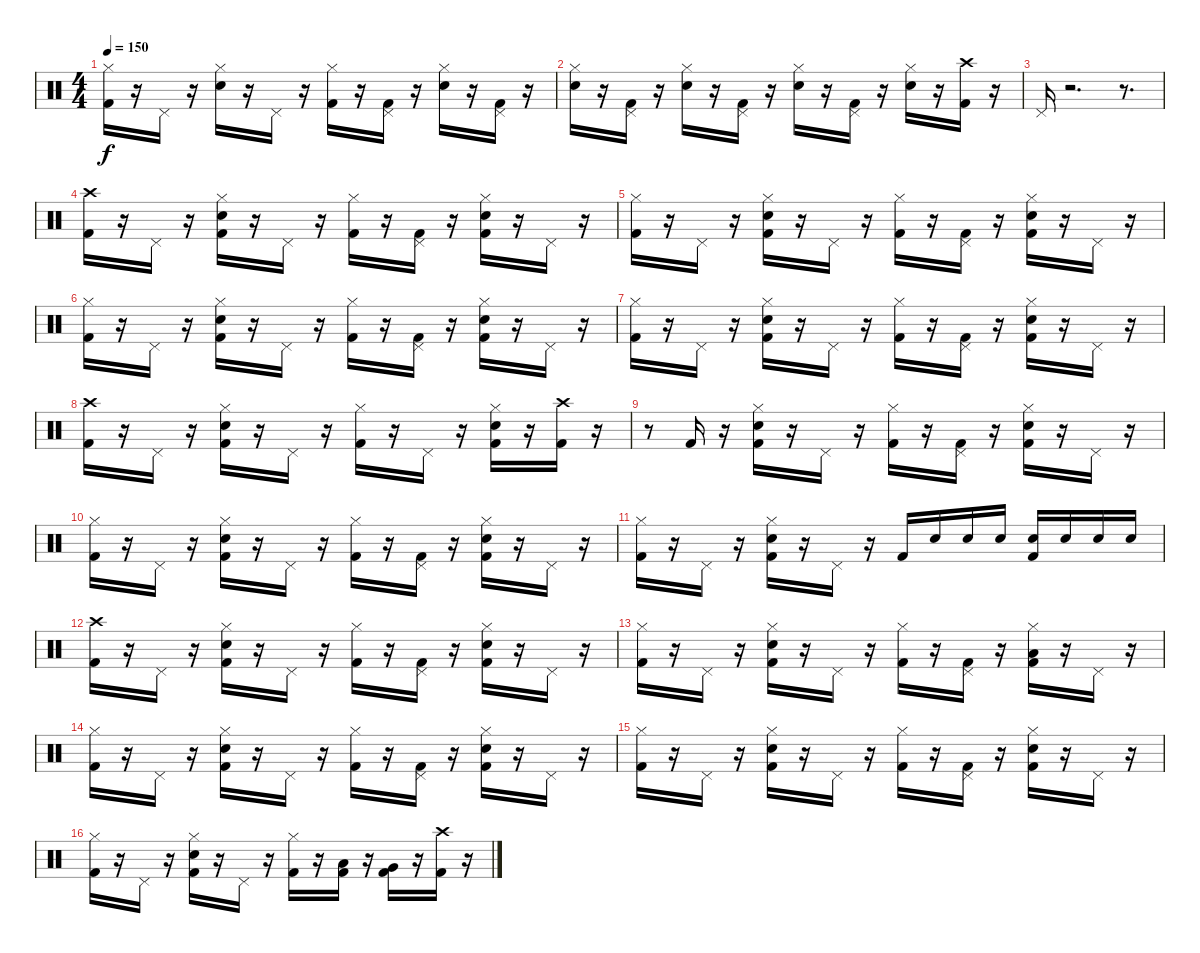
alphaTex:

\track "" {instrument percussion}
\staff {score}
\articulation defaults
\ts (4 4)
\tempo 150
\clef neutral
\ks c
("Hi-Hat (closed)" "Kick (hit) 2").16{dy f} r.16 "Pedal Hi-Hat (hit)".16 r.16 ("Electric Snare (hit)" "Hi-Hat (closed)").16 r.16 "Pedal Hi-Hat (hit)".16 r.16 ("Kick (hit) 2" "Hi-Hat (closed)").16 r.16 ("Kick (hit) 2" "Pedal Hi-Hat (hit)").16 r.16 ("Electric Snare (hit)" "Hi-Hat (closed)").16 r.16 ("Kick (hit) 2" "Pedal Hi-Hat (hit)").16 r.16 |
("Hi-Hat (closed)" "Electric Snare (hit)").16 r.16 ("Pedal Hi-Hat (hit)" "Kick (hit) 2").16 r.16 ("Hi-Hat (closed)" "Electric Snare (hit)").16 r.16 ("Pedal Hi-Hat (hit)" "Kick (hit) 2").16 r.16 ("Hi-Hat (closed)" "Electric Snare (hit)").16 r.16 ("Pedal Hi-Hat (hit)" "Kick (hit) 2").16 r.16 ("Hi-Hat (closed)" "Electric Snare (hit)").16 r.16 ("Crash high (hit)" "Kick (hit) 2").16 r.16 |
"Pedal Hi-Hat (hit)".16 r.2{d} r.8{d} |
("Crash high (hit)" "Kick (hit) 2").16 r.16 "Pedal Hi-Hat (hit)".16 r.16 ("Electric Snare (hit)" "Hi-Hat (closed)" "Kick (hit) 2").16 r.16 "Pedal Hi-Hat (hit)".16 r.16 ("Hi-Hat (closed)" "Kick (hit) 2").16 r.16 ("Pedal Hi-Hat (hit)" "Kick (hit) 2").16 r.16 ("Kick (hit) 2" "Electric Snare (hit)" "Hi-Hat (closed)").16 r.16 "Pedal Hi-Hat (hit)".16 r.16 |
("Hi-Hat (closed)" "Kick (hit) 2").16 r.16 "Pedal Hi-Hat (hit)".16 r.16 ("Electric Snare (hit)" "Kick (hit) 2" "Hi-Hat (closed)").16 r.16 "Pedal Hi-Hat (hit)".16 r.16 ("Kick (hit) 2" "Hi-Hat (closed)").16 r.16 ("Kick (hit) 2" "Pedal Hi-Hat (hit)").16 r.16 ("Electric Snare (hit)" "Kick (hit) 2" "Hi-Hat (closed)").16 r.16 "Pedal Hi-Hat (hit)".16 r.16 |
("Hi-Hat (closed)" "Kick (hit) 2").16 r.16 "Pedal Hi-Hat (hit)".16 r.16 ("Electric Snare (hit)" "Hi-Hat (closed)" "Kick (hit) 2").16 r.16 "Pedal Hi-Hat (hit)".16 r.16 ("Hi-Hat (closed)" "Kick (hit) 2").16 r.16 ("Kick (hit) 2" "Pedal Hi-Hat (hit)").16 r.16 ("Electric Snare (hit)" "Hi-Hat (closed)" "Kick (hit) 2").16 r.16 "Pedal Hi-Hat (hit)".16 r.16 |
("Hi-Hat (closed)" "Kick (hit) 2").16 r.16 "Pedal Hi-Hat (hit)".16 r.16 ("Electric Snare (hit)" "Kick (hit) 2" "Hi-Hat (closed)").16 r.16 "Pedal Hi-Hat (hit)".16 r.16 ("Kick (hit) 2" "Hi-Hat (closed)").16 r.16 ("Kick (hit) 2" "Pedal Hi-Hat (hit)").16 r.16 ("Electric Snare (hit)" "Kick (hit) 2" "Hi-Hat (closed)").16 r.16 "Pedal Hi-Hat (hit)".16 r.16 |
("Crash high (hit)" "Kick (hit) 2").16 r.16 "Pedal Hi-Hat (hit)".16 r.16 ("Hi-Hat (closed)" "Kick (hit) 2" "Electric Snare (hit)").16 r.16 "Pedal Hi-Hat (hit)".16 r.16 ("Hi-Hat (closed)" "Kick (hit) 2").16 r.16 "Pedal Hi-Hat (hit)".16 r.16 ("Hi-Hat (closed)" "Kick (hit) 2" "Electric Snare (hit)").16 r.16 ("Crash high (hit)" "Kick (hit) 2").16 r.16 |
r.8 "Kick (hit) 2".16 r.16 ("Electric Snare (hit)" "Kick (hit) 2" "Hi-Hat (closed)").16 r.16 "Pedal Hi-Hat (hit)".16 r.16 ("Kick (hit) 2" "Hi-Hat (closed)").16 r.16 ("Kick (hit) 2" "Pedal Hi-Hat (hit)").16 r.16 ("Electric Snare (hit)" "Kick (hit) 2" "Hi-Hat (closed)").16 r.16 "Pedal Hi-Hat (hit)".16 r.16 |
("Hi-Hat (closed)" "Kick (hit) 2").16 r.16 "Pedal Hi-Hat (hit)".16 r.16 ("Hi-Hat (closed)" "Kick (hit) 2" "Electric Snare (hit)").16 r.16 "Pedal Hi-Hat (hit)".16 r.16 ("Hi-Hat (closed)" "Kick (hit) 2").16 r.16 ("Kick (hit) 2" "Pedal Hi-Hat (hit)").16 r.16 ("Hi-Hat (closed)" "Kick (hit) 2" "Electric Snare (hit)").16 r.16 "Pedal Hi-Hat (hit)".16 r.16 |
("Hi-Hat (closed)" "Kick (hit) 2").16 r.16 "Pedal Hi-Hat (hit)".16 r.16 ("Hi-Hat (closed)" "Kick (hit) 2" "Electric Snare (hit)").16 r.16 "Pedal Hi-Hat (hit)".16 r.16 "Kick (hit) 2".16 "Electric Snare (hit)".16 "Electric Snare (hit)".16 "Electric Snare (hit)".16 ("Kick (hit) 2" "Electric Snare (hit)").16 "Electric Snare (hit)".16 "Electric Snare (hit)".16 "Electric Snare (hit)".16 |
("Crash high (hit)" "Kick (hit) 2").16 r.16 "Pedal Hi-Hat (hit)".16 r.16 ("Electric Snare (hit)" "Kick (hit) 2" "Hi-Hat (closed)").16 r.16 "Pedal Hi-Hat (hit)".16 r.16 ("Kick (hit) 2" "Hi-Hat (closed)").16 r.16 ("Kick (hit) 2" "Pedal Hi-Hat (hit)").16 r.16 ("Electric Snare (hit)" "Kick (hit) 2" "Hi-Hat (closed)").16 r.16 "Pedal Hi-Hat (hit)".16 r.16 |
("Hi-Hat (closed)" "Kick (hit) 2").16 r.16 "Pedal Hi-Hat (hit)".16 r.16 ("Electric Snare (hit)" "Kick (hit) 2" "Hi-Hat (closed)").16 r.16 "Pedal Hi-Hat (hit)".16 r.16 ("Kick (hit) 2" "Hi-Hat (closed)").16 r.16 ("Kick (hit) 2" "Pedal Hi-Hat (hit)").16 r.16 ("Hi-Hat (closed)" "Low Tom (hit)" "Kick (hit) 2").16 r.16 "Pedal Hi-Hat (hit)".16 r.16 |
("Hi-Hat (closed)" "Kick (hit) 2").16 r.16 "Pedal Hi-Hat (hit)".16 r.16 ("Hi-Hat (closed)" "Kick (hit) 2" "Electric Snare (hit)").16 r.16 "Pedal Hi-Hat (hit)".16 r.16 ("Hi-Hat (closed)" "Kick (hit) 2").16 r.16 ("Kick (hit) 2" "Pedal Hi-Hat (hit)").16 r.16 ("Hi-Hat (closed)" "Kick (hit) 2" "Electric Snare (hit)").16 r.16 "Pedal Hi-Hat (hit)".16 r.16 |
("Hi-Hat (closed)" "Kick (hit) 2").16 r.16 "Pedal Hi-Hat (hit)".16 r.16 ("Electric Snare (hit)" "Kick (hit) 2" "Hi-Hat (closed)").16 r.16 "Pedal Hi-Hat (hit)".16 r.16 ("Kick (hit) 2" "Hi-Hat (closed)").16 r.16 ("Kick (hit) 2" "Pedal Hi-Hat (hit)").16 r.16 ("Electric Snare (hit)" "Kick (hit) 2" "Hi-Hat (closed)").16 r.16 "Pedal Hi-Hat (hit)".16 r.16 |
("Hi-Hat (closed)" "Kick (hit) 2").16 r.16 "Pedal Hi-Hat (hit)".16 r.16 ("Hi-Hat (closed)" "Kick (hit) 2" "Electric Snare (hit)").16 r.16 "Pedal Hi-Hat (hit)".16 r.16 ("Hi-Hat (closed)" "Kick (hit) 2").16 r.16 ("Low Tom (hit)" "Kick (hit) 2").16 r.16 ("Very Low Tom (hit)" "Kick (hit) 2").16 r.16 ("Kick (hit) 2" "Crash high (hit)").16 r.16
